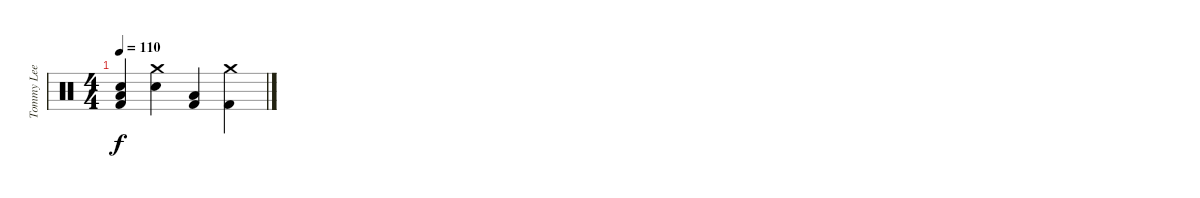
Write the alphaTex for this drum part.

\track ("Tommy Lee" "Tommy Lee") {instrument percussion}
\staff {score}
\articulation defaults
\ts (4 4)
\tempo 110
\clef neutral
\ks c
("Kick (hit) 2" "Low Floor Tom (hit)" "Electric Snare (hit)").4{dy f} ("Crash medium (hit)" "Electric Snare (hit)").4 ("Kick (hit) 2" "Low Floor Tom (hit)").4 ("Kick (hit) 2" "Crash medium (hit)").4
